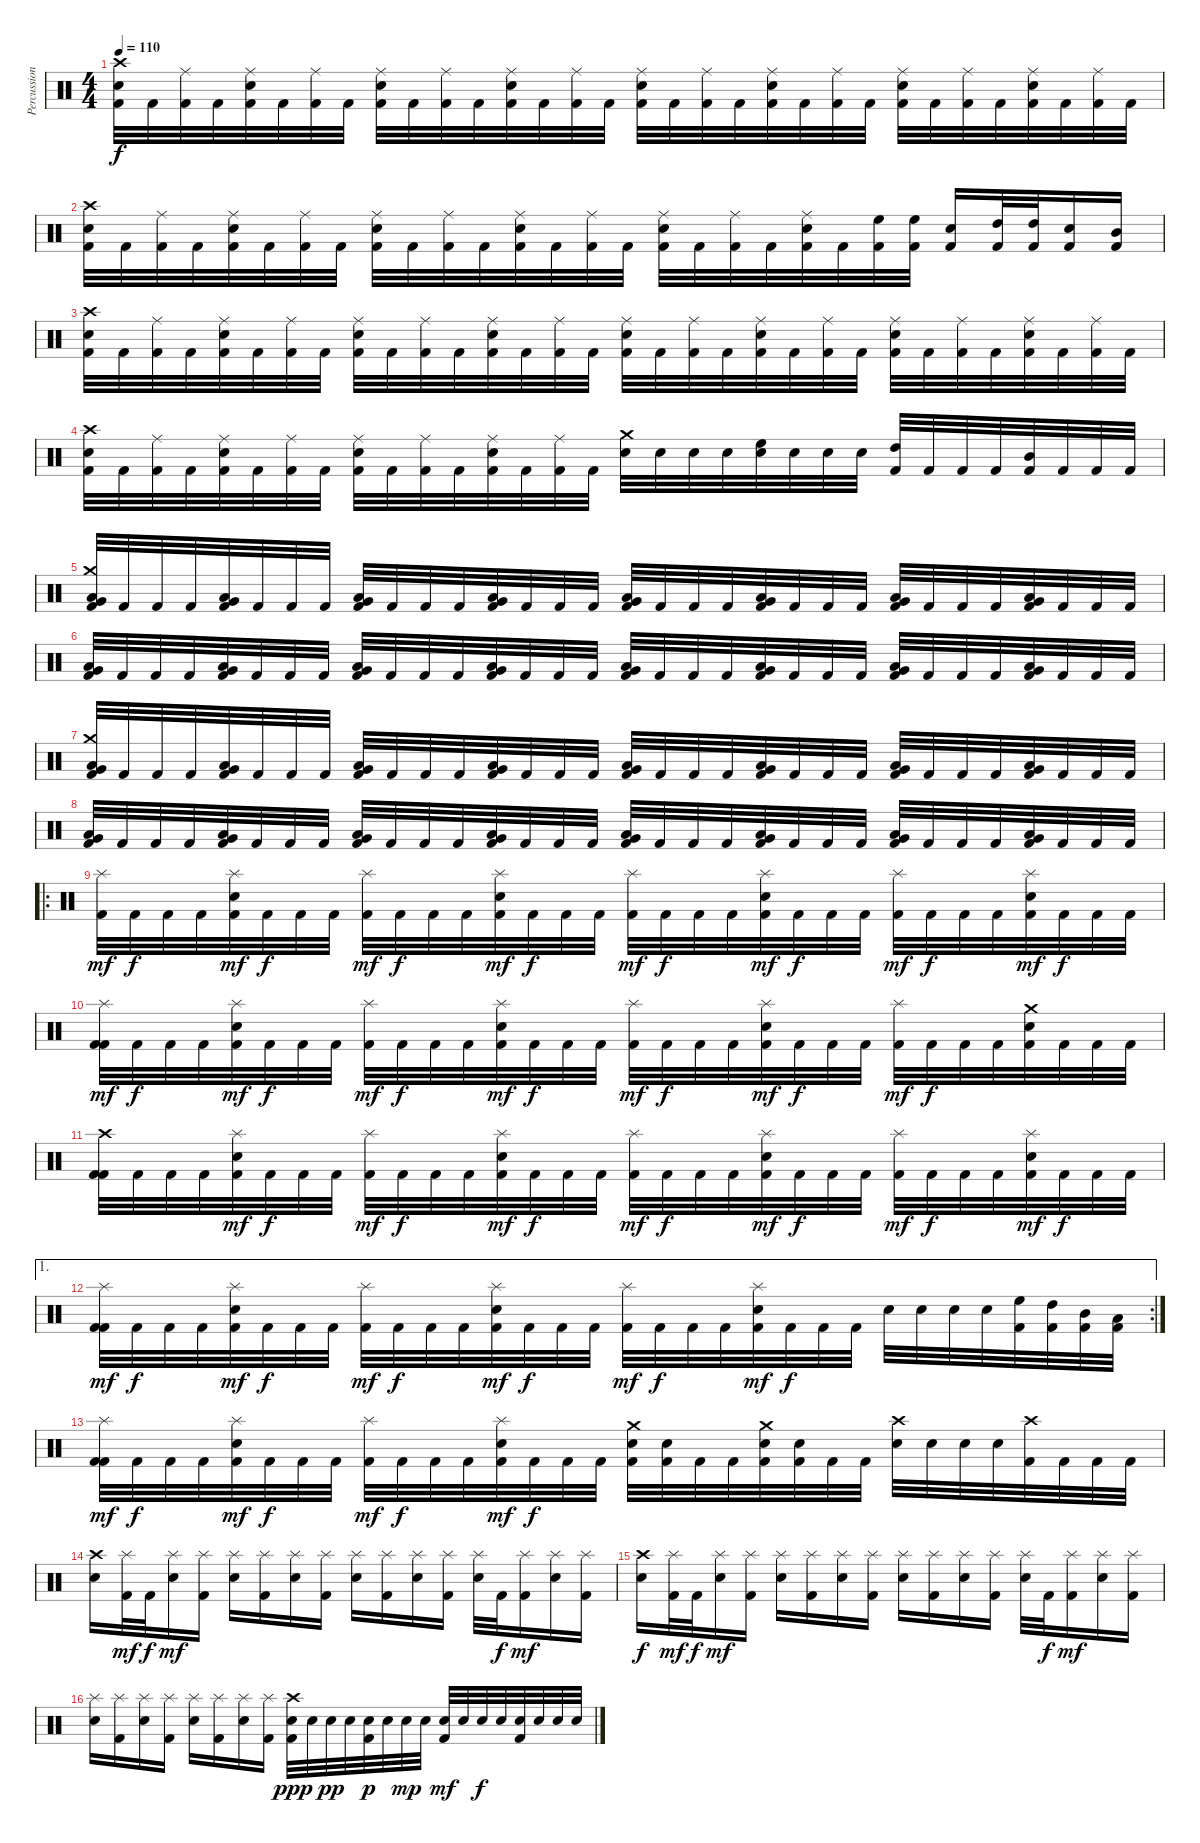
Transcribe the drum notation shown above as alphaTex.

\track ("Percussion" "Percussion") {instrument percussion}
\staff {score}
\articulation defaults
\ts (4 4)
\tempo 110
\clef neutral
\ks c
("Crash high (hit)" "Snare (hit) 2" "Kick (hit) 2").32{dy f} "Kick (hit) 2".32 ("Ride (middle)" "Kick (hit) 2").32 "Kick (hit) 2".32 ("Ride (middle)" "Snare (hit) 2" "Kick (hit) 2").32 "Kick (hit) 2".32 ("Ride (middle)" "Kick (hit) 2").32 "Kick (hit) 2".32 ("Ride (middle)" "Snare (hit) 2" "Kick (hit) 2").32 "Kick (hit) 2".32 ("Ride (middle)" "Kick (hit) 2").32 "Kick (hit) 2".32 ("Ride (middle)" "Snare (hit) 2" "Kick (hit) 2").32 "Kick (hit) 2".32 ("Ride (middle)" "Kick (hit) 2").32 "Kick (hit) 2".32 ("Ride (middle)" "Snare (hit) 2" "Kick (hit) 2").32 "Kick (hit) 2".32 ("Ride (middle)" "Kick (hit) 2").32 "Kick (hit) 2".32 ("Ride (middle)" "Snare (hit) 2" "Kick (hit) 2").32 "Kick (hit) 2".32 ("Ride (middle)" "Kick (hit) 2").32 "Kick (hit) 2".32 ("Ride (middle)" "Snare (hit) 2" "Kick (hit) 2").32 "Kick (hit) 2".32 ("Ride (middle)" "Kick (hit) 2").32 "Kick (hit) 2".32 ("Ride (middle)" "Snare (hit) 2" "Kick (hit) 2").32 "Kick (hit) 2".32 ("Ride (middle)" "Kick (hit) 2").32 "Kick (hit) 2".32 |
("Crash high (hit)" "Snare (hit) 2" "Kick (hit) 2").32 "Kick (hit) 2".32 ("Ride (middle)" "Kick (hit) 2").32 "Kick (hit) 2".32 ("Ride (middle)" "Snare (hit) 2" "Kick (hit) 2").32 "Kick (hit) 2".32 ("Ride (middle)" "Kick (hit) 2").32 "Kick (hit) 2".32 ("Ride (middle)" "Snare (hit) 2" "Kick (hit) 2").32 "Kick (hit) 2".32 ("Ride (middle)" "Kick (hit) 2").32 "Kick (hit) 2".32 ("Ride (middle)" "Snare (hit) 2" "Kick (hit) 2").32 "Kick (hit) 2".32 ("Ride (middle)" "Kick (hit) 2").32 "Kick (hit) 2".32 ("Ride (middle)" "Snare (hit) 2" "Kick (hit) 2").32 "Kick (hit) 2".32 ("Ride (middle)" "Kick (hit) 2").32 "Kick (hit) 2".32 ("Ride (middle)" "Snare (hit) 2" "Kick (hit) 2").32 "Kick (hit) 2".32 ("High Floor Tom (hit)" "Kick (hit) 2").32 ("High Floor Tom (hit)" "Kick (hit) 2").32 ("Snare (hit) 2" "Kick (hit) 2").16 ("High Tom (hit)" "Kick (hit) 2").32 ("High Tom (hit)" "Kick (hit) 2").32 ("Snare (hit) 2" "Kick (hit) 2").16 ("Mid Tom (hit)" "Kick (hit) 2").16 |
("Crash high (hit)" "Snare (hit) 2" "Kick (hit) 2").32 "Kick (hit) 2".32 ("Ride (middle)" "Kick (hit) 2").32 "Kick (hit) 2".32 ("Ride (middle)" "Snare (hit) 2" "Kick (hit) 2").32 "Kick (hit) 2".32 ("Ride (middle)" "Kick (hit) 2").32 "Kick (hit) 2".32 ("Ride (middle)" "Snare (hit) 2" "Kick (hit) 2").32 "Kick (hit) 2".32 ("Ride (middle)" "Kick (hit) 2").32 "Kick (hit) 2".32 ("Ride (middle)" "Snare (hit) 2" "Kick (hit) 2").32 "Kick (hit) 2".32 ("Ride (middle)" "Kick (hit) 2").32 "Kick (hit) 2".32 ("Ride (middle)" "Snare (hit) 2" "Kick (hit) 2").32 "Kick (hit) 2".32 ("Ride (middle)" "Kick (hit) 2").32 "Kick (hit) 2".32 ("Ride (middle)" "Snare (hit) 2" "Kick (hit) 2").32 "Kick (hit) 2".32 ("Ride (middle)" "Kick (hit) 2").32 "Kick (hit) 2".32 ("Ride (middle)" "Snare (hit) 2" "Kick (hit) 2").32 "Kick (hit) 2".32 ("Ride (middle)" "Kick (hit) 2").32 "Kick (hit) 2".32 ("Ride (middle)" "Snare (hit) 2" "Kick (hit) 2").32 "Kick (hit) 2".32 ("Ride (middle)" "Kick (hit) 2").32 "Kick (hit) 2".32 |
("Crash high (hit)" "Snare (hit) 2" "Kick (hit) 2").32 "Kick (hit) 2".32 ("Ride (middle)" "Kick (hit) 2").32 "Kick (hit) 2".32 ("Ride (middle)" "Snare (hit) 2" "Kick (hit) 2").32 "Kick (hit) 2".32 ("Ride (middle)" "Kick (hit) 2").32 "Kick (hit) 2".32 ("Ride (middle)" "Snare (hit) 2" "Kick (hit) 2").32 "Kick (hit) 2".32 ("Ride (middle)" "Kick (hit) 2").32 "Kick (hit) 2".32 ("Ride (middle)" "Snare (hit) 2" "Kick (hit) 2").32 "Kick (hit) 2".32 ("Ride (middle)" "Kick (hit) 2").32 "Kick (hit) 2".32 ("Crash medium (hit)" "Snare (hit) 2").32 "Snare (hit) 2".32 "Snare (hit) 2".32 "Snare (hit) 2".32 ("High Floor Tom (hit)" "Snare (hit) 2").32 "Snare (hit) 2".32 "Snare (hit) 2".32 "Snare (hit) 2".32 ("High Tom (hit)" "Kick (hit) 2").32 "Kick (hit) 2".32 "Kick (hit) 2".32 "Kick (hit) 2".32 ("Mid Tom (hit)" "Kick (hit) 2").32 "Kick (hit) 2".32 "Kick (hit) 2".32 "Kick (hit) 2".32 |
\section ("" "")
("Crash medium (hit)" "Kick (hit) 2" "Very Low Tom (hit)" "Low Tom (hit)").32 "Kick (hit) 2".32 "Kick (hit) 2".32 "Kick (hit) 2".32 ("Kick (hit) 2" "Very Low Tom (hit)" "Low Tom (hit)").32 "Kick (hit) 2".32 "Kick (hit) 2".32 "Kick (hit) 2".32 ("Kick (hit) 2" "Very Low Tom (hit)" "Low Tom (hit)").32 "Kick (hit) 2".32 "Kick (hit) 2".32 "Kick (hit) 2".32 ("Kick (hit) 2" "Very Low Tom (hit)" "Low Tom (hit)").32 "Kick (hit) 2".32 "Kick (hit) 2".32 "Kick (hit) 2".32 ("Kick (hit) 2" "Very Low Tom (hit)" "Low Tom (hit)").32 "Kick (hit) 2".32 "Kick (hit) 2".32 "Kick (hit) 2".32 ("Kick (hit) 2" "Very Low Tom (hit)" "Low Tom (hit)").32 "Kick (hit) 2".32 "Kick (hit) 2".32 "Kick (hit) 2".32 ("Kick (hit) 2" "Very Low Tom (hit)" "Low Tom (hit)").32 "Kick (hit) 2".32 "Kick (hit) 2".32 "Kick (hit) 2".32 ("Kick (hit) 2" "Very Low Tom (hit)" "Low Tom (hit)").32 "Kick (hit) 2".32 "Kick (hit) 2".32 "Kick (hit) 2".32 |
("Kick (hit) 2" "Very Low Tom (hit)" "Low Tom (hit)").32 "Kick (hit) 2".32 "Kick (hit) 2".32 "Kick (hit) 2".32 ("Kick (hit) 2" "Very Low Tom (hit)" "Low Tom (hit)").32 "Kick (hit) 2".32 "Kick (hit) 2".32 "Kick (hit) 2".32 ("Kick (hit) 2" "Very Low Tom (hit)" "Low Tom (hit)").32 "Kick (hit) 2".32 "Kick (hit) 2".32 "Kick (hit) 2".32 ("Kick (hit) 2" "Very Low Tom (hit)" "Low Tom (hit)").32 "Kick (hit) 2".32 "Kick (hit) 2".32 "Kick (hit) 2".32 ("Kick (hit) 2" "Very Low Tom (hit)" "Low Tom (hit)").32 "Kick (hit) 2".32 "Kick (hit) 2".32 "Kick (hit) 2".32 ("Kick (hit) 2" "Very Low Tom (hit)" "Low Tom (hit)").32 "Kick (hit) 2".32 "Kick (hit) 2".32 "Kick (hit) 2".32 ("Kick (hit) 2" "Very Low Tom (hit)" "Low Tom (hit)").32 "Kick (hit) 2".32 "Kick (hit) 2".32 "Kick (hit) 2".32 ("Kick (hit) 2" "Very Low Tom (hit)" "Low Tom (hit)").32 "Kick (hit) 2".32 "Kick (hit) 2".32 "Kick (hit) 2".32 |
("Crash medium (hit)" "Kick (hit) 2" "Low Tom (hit)" "Very Low Tom (hit)").32 "Kick (hit) 2".32 "Kick (hit) 2".32 "Kick (hit) 2".32 ("Kick (hit) 2" "Low Tom (hit)" "Very Low Tom (hit)").32 "Kick (hit) 2".32 "Kick (hit) 2".32 "Kick (hit) 2".32 ("Kick (hit) 2" "Low Tom (hit)" "Very Low Tom (hit)").32 "Kick (hit) 2".32 "Kick (hit) 2".32 "Kick (hit) 2".32 ("Kick (hit) 2" "Low Tom (hit)" "Very Low Tom (hit)").32 "Kick (hit) 2".32 "Kick (hit) 2".32 "Kick (hit) 2".32 ("Kick (hit) 2" "Low Tom (hit)" "Very Low Tom (hit)").32 "Kick (hit) 2".32 "Kick (hit) 2".32 "Kick (hit) 2".32 ("Kick (hit) 2" "Low Tom (hit)" "Very Low Tom (hit)").32 "Kick (hit) 2".32 "Kick (hit) 2".32 "Kick (hit) 2".32 ("Kick (hit) 2" "Low Tom (hit)" "Very Low Tom (hit)").32 "Kick (hit) 2".32 "Kick (hit) 2".32 "Kick (hit) 2".32 ("Kick (hit) 2" "Low Tom (hit)" "Very Low Tom (hit)").32 "Kick (hit) 2".32 "Kick (hit) 2".32 "Kick (hit) 2".32 |
("Kick (hit) 2" "Low Tom (hit)" "Very Low Tom (hit)").32 "Kick (hit) 2".32 "Kick (hit) 2".32 "Kick (hit) 2".32 ("Kick (hit) 2" "Low Tom (hit)" "Very Low Tom (hit)").32 "Kick (hit) 2".32 "Kick (hit) 2".32 "Kick (hit) 2".32 ("Kick (hit) 2" "Low Tom (hit)" "Very Low Tom (hit)").32 "Kick (hit) 2".32 "Kick (hit) 2".32 "Kick (hit) 2".32 ("Kick (hit) 2" "Low Tom (hit)" "Very Low Tom (hit)").32 "Kick (hit) 2".32 "Kick (hit) 2".32 "Kick (hit) 2".32 ("Kick (hit) 2" "Low Tom (hit)" "Very Low Tom (hit)").32 "Kick (hit) 2".32 "Kick (hit) 2".32 "Kick (hit) 2".32 ("Kick (hit) 2" "Low Tom (hit)" "Very Low Tom (hit)").32 "Kick (hit) 2".32 "Kick (hit) 2".32 "Kick (hit) 2".32 ("Kick (hit) 2" "Low Tom (hit)" "Very Low Tom (hit)").32 "Kick (hit) 2".32 "Kick (hit) 2".32 "Kick (hit) 2".32 ("Kick (hit) 2" "Low Tom (hit)" "Very Low Tom (hit)").32 "Kick (hit) 2".32 "Kick (hit) 2".32 "Kick (hit) 2".32 |
\ro
("Splash (hit)" "Kick (hit) 2").32{dy mf} "Kick (hit) 2".32{dy f} "Kick (hit) 2".32 "Kick (hit) 2".32 ("Splash (hit)" "Kick (hit) 2" "Snare (hit) 2").32{dy mf} "Kick (hit) 2".32{dy f} "Kick (hit) 2".32 "Kick (hit) 2".32 ("Splash (hit)" "Kick (hit) 2").32{dy mf} "Kick (hit) 2".32{dy f} "Kick (hit) 2".32 "Kick (hit) 2".32 ("Splash (hit)" "Kick (hit) 2" "Snare (hit) 2").32{dy mf} "Kick (hit) 2".32{dy f} "Kick (hit) 2".32 "Kick (hit) 2".32 ("Splash (hit)" "Kick (hit) 2").32{dy mf} "Kick (hit) 2".32{dy f} "Kick (hit) 2".32 "Kick (hit) 2".32 ("Splash (hit)" "Kick (hit) 2" "Snare (hit) 2").32{dy mf} "Kick (hit) 2".32{dy f} "Kick (hit) 2".32 "Kick (hit) 2".32 ("Splash (hit)" "Kick (hit) 2").32{dy mf} "Kick (hit) 2".32{dy f} "Kick (hit) 2".32 "Kick (hit) 2".32 ("Splash (hit)" "Kick (hit) 2" "Snare (hit) 2").32{dy mf} "Kick (hit) 2".32{dy f} "Kick (hit) 2".32 "Kick (hit) 2".32 |
("Splash (hit)" "Kick (hit) 2" "Kick (hit) 2").32{dy mf} "Kick (hit) 2".32{dy f} "Kick (hit) 2".32 "Kick (hit) 2".32 ("Splash (hit)" "Kick (hit) 2" "Snare (hit) 2").32{dy mf} "Kick (hit) 2".32{dy f} "Kick (hit) 2".32 "Kick (hit) 2".32 ("Splash (hit)" "Kick (hit) 2").32{dy mf} "Kick (hit) 2".32{dy f} "Kick (hit) 2".32 "Kick (hit) 2".32 ("Splash (hit)" "Kick (hit) 2" "Snare (hit) 2").32{dy mf} "Kick (hit) 2".32{dy f} "Kick (hit) 2".32 "Kick (hit) 2".32 ("Splash (hit)" "Kick (hit) 2").32{dy mf} "Kick (hit) 2".32{dy f} "Kick (hit) 2".32 "Kick (hit) 2".32 ("Splash (hit)" "Kick (hit) 2" "Snare (hit) 2").32{dy mf} "Kick (hit) 2".32{dy f} "Kick (hit) 2".32 "Kick (hit) 2".32 ("Splash (hit)" "Kick (hit) 2").32{dy mf} "Kick (hit) 2".32{dy f} "Kick (hit) 2".32 "Kick (hit) 2".32 ("Crash medium (hit)" "Kick (hit) 2" "Snare (hit) 2").32 "Kick (hit) 2".32 "Kick (hit) 2".32 "Kick (hit) 2".32 |
("Crash high (hit)" "Kick (hit) 2" "Kick (hit) 2").32 "Kick (hit) 2".32 "Kick (hit) 2".32 "Kick (hit) 2".32 ("Splash (hit)" "Kick (hit) 2" "Snare (hit) 2").32{dy mf} "Kick (hit) 2".32{dy f} "Kick (hit) 2".32 "Kick (hit) 2".32 ("Splash (hit)" "Kick (hit) 2").32{dy mf} "Kick (hit) 2".32{dy f} "Kick (hit) 2".32 "Kick (hit) 2".32 ("Splash (hit)" "Kick (hit) 2" "Snare (hit) 2").32{dy mf} "Kick (hit) 2".32{dy f} "Kick (hit) 2".32 "Kick (hit) 2".32 ("Splash (hit)" "Kick (hit) 2").32{dy mf} "Kick (hit) 2".32{dy f} "Kick (hit) 2".32 "Kick (hit) 2".32 ("Splash (hit)" "Kick (hit) 2" "Snare (hit) 2").32{dy mf} "Kick (hit) 2".32{dy f} "Kick (hit) 2".32 "Kick (hit) 2".32 ("Splash (hit)" "Kick (hit) 2").32{dy mf} "Kick (hit) 2".32{dy f} "Kick (hit) 2".32 "Kick (hit) 2".32 ("Splash (hit)" "Kick (hit) 2" "Snare (hit) 2").32{dy mf} "Kick (hit) 2".32{dy f} "Kick (hit) 2".32 "Kick (hit) 2".32 |
\ae 1
\rc 2
("Splash (hit)" "Kick (hit) 2" "Kick (hit) 2").32{dy mf} "Kick (hit) 2".32{dy f} "Kick (hit) 2".32 "Kick (hit) 2".32 ("Splash (hit)" "Kick (hit) 2" "Snare (hit) 2").32{dy mf} "Kick (hit) 2".32{dy f} "Kick (hit) 2".32 "Kick (hit) 2".32 ("Splash (hit)" "Kick (hit) 2").32{dy mf} "Kick (hit) 2".32{dy f} "Kick (hit) 2".32 "Kick (hit) 2".32 ("Splash (hit)" "Kick (hit) 2" "Snare (hit) 2").32{dy mf} "Kick (hit) 2".32{dy f} "Kick (hit) 2".32 "Kick (hit) 2".32 ("Splash (hit)" "Kick (hit) 2").32{dy mf} "Kick (hit) 2".32{dy f} "Kick (hit) 2".32 "Kick (hit) 2".32 ("Splash (hit)" "Kick (hit) 2" "Snare (hit) 2").32{dy mf} "Kick (hit) 2".32{dy f} "Kick (hit) 2".32 "Kick (hit) 2".32 "Snare (hit) 2".32 "Snare (hit) 2".32 "Snare (hit) 2".32 "Snare (hit) 2".32 ("High Floor Tom (hit)" "Kick (hit) 2").32 ("High Tom (hit)" "Kick (hit) 2").32 ("Mid Tom (hit)" "Kick (hit) 2").32 ("Low Tom (hit)" "Kick (hit) 2").32 |
("Splash (hit)" "Kick (hit) 2" "Kick (hit) 2").32{dy mf} "Kick (hit) 2".32{dy f} "Kick (hit) 2".32 "Kick (hit) 2".32 ("Splash (hit)" "Kick (hit) 2" "Snare (hit) 2").32{dy mf} "Kick (hit) 2".32{dy f} "Kick (hit) 2".32 "Kick (hit) 2".32 ("Splash (hit)" "Kick (hit) 2").32{dy mf} "Kick (hit) 2".32{dy f} "Kick (hit) 2".32 "Kick (hit) 2".32 ("Splash (hit)" "Kick (hit) 2" "Snare (hit) 2").32{dy mf} "Kick (hit) 2".32{dy f} "Kick (hit) 2".32 "Kick (hit) 2".32 ("Crash medium (hit)" "Snare (hit) 2" "Kick (hit) 2").32 ("Snare (hit) 2" "Kick (hit) 2").32 "Kick (hit) 2".32 "Kick (hit) 2".32 ("Crash medium (hit)" "Snare (hit) 2" "Kick (hit) 2").32 ("Snare (hit) 2" "Kick (hit) 2").32 "Kick (hit) 2".32 "Kick (hit) 2".32 ("Crash high (hit)" "Snare (hit) 2").32 "Snare (hit) 2".32 "Snare (hit) 2".32 "Snare (hit) 2".32 ("Crash high (hit)" "Kick (hit) 2").32 "Kick (hit) 2".32 "Kick (hit) 2".32 "Kick (hit) 2".32 |
("Crash high (hit)" "Snare (hit) 2").16 ("Splash (hit)" "Kick (hit) 2").32{dy mf} "Kick (hit) 2".32{dy f} ("Splash (hit)" "Snare (hit) 2").16{dy mf} ("Splash (hit)" "Kick (hit) 2").16 ("Splash (hit)" "Snare (hit) 2").16 ("Splash (hit)" "Kick (hit) 2").16 ("Splash (hit)" "Snare (hit) 2").16 ("Splash (hit)" "Kick (hit) 2").16 ("Splash (hit)" "Snare (hit) 2").16 ("Splash (hit)" "Kick (hit) 2").16 ("Splash (hit)" "Snare (hit) 2").16 ("Splash (hit)" "Kick (hit) 2").16 ("Splash (hit)" "Snare (hit) 2").32 "Kick (hit) 2".32{dy f} ("Splash (hit)" "Kick (hit) 2").16{dy mf} ("Splash (hit)" "Snare (hit) 2").16 ("Splash (hit)" "Kick (hit) 2").16 |
("Crash high (hit)" "Snare (hit) 2").16{dy f} ("Splash (hit)" "Kick (hit) 2").32{dy mf} "Kick (hit) 2".32{dy f} ("Splash (hit)" "Snare (hit) 2").16{dy mf} ("Splash (hit)" "Kick (hit) 2").16 ("Splash (hit)" "Snare (hit) 2").16 ("Splash (hit)" "Kick (hit) 2").16 ("Splash (hit)" "Snare (hit) 2").16 ("Splash (hit)" "Kick (hit) 2").16 ("Splash (hit)" "Snare (hit) 2").16 ("Splash (hit)" "Kick (hit) 2").16 ("Splash (hit)" "Snare (hit) 2").16 ("Splash (hit)" "Kick (hit) 2").16 ("Splash (hit)" "Snare (hit) 2").32 "Kick (hit) 2".32{dy f} ("Splash (hit)" "Kick (hit) 2").16{dy mf} ("Splash (hit)" "Snare (hit) 2").16 ("Splash (hit)" "Kick (hit) 2").16 |
("Splash (hit)" "Snare (hit) 2").16 ("Splash (hit)" "Kick (hit) 2").16 ("Splash (hit)" "Snare (hit) 2").16 ("Splash (hit)" "Kick (hit) 2").16 ("Splash (hit)" "Snare (hit) 2").16 ("Splash (hit)" "Kick (hit) 2").16 ("Splash (hit)" "Snare (hit) 2").16 ("Splash (hit)" "Kick (hit) 2").16 ("Crash high (hit)" "Snare (hit) 2" "Kick (hit) 2").32{dy ppp} "Snare (hit) 2".32 "Snare (hit) 2".32{dy pp} "Snare (hit) 2".32 ("Snare (hit) 2" "Kick (hit) 2").32{dy p} "Snare (hit) 2".32 "Snare (hit) 2".32{dy mp} "Snare (hit) 2".32 ("Snare (hit) 2" "Kick (hit) 2").32{dy mf} "Snare (hit) 2".32 "Snare (hit) 2".32{dy f} "Snare (hit) 2".32 ("Snare (hit) 2" "Kick (hit) 2").32 "Snare (hit) 2".32 "Snare (hit) 2".32 "Snare (hit) 2".32
